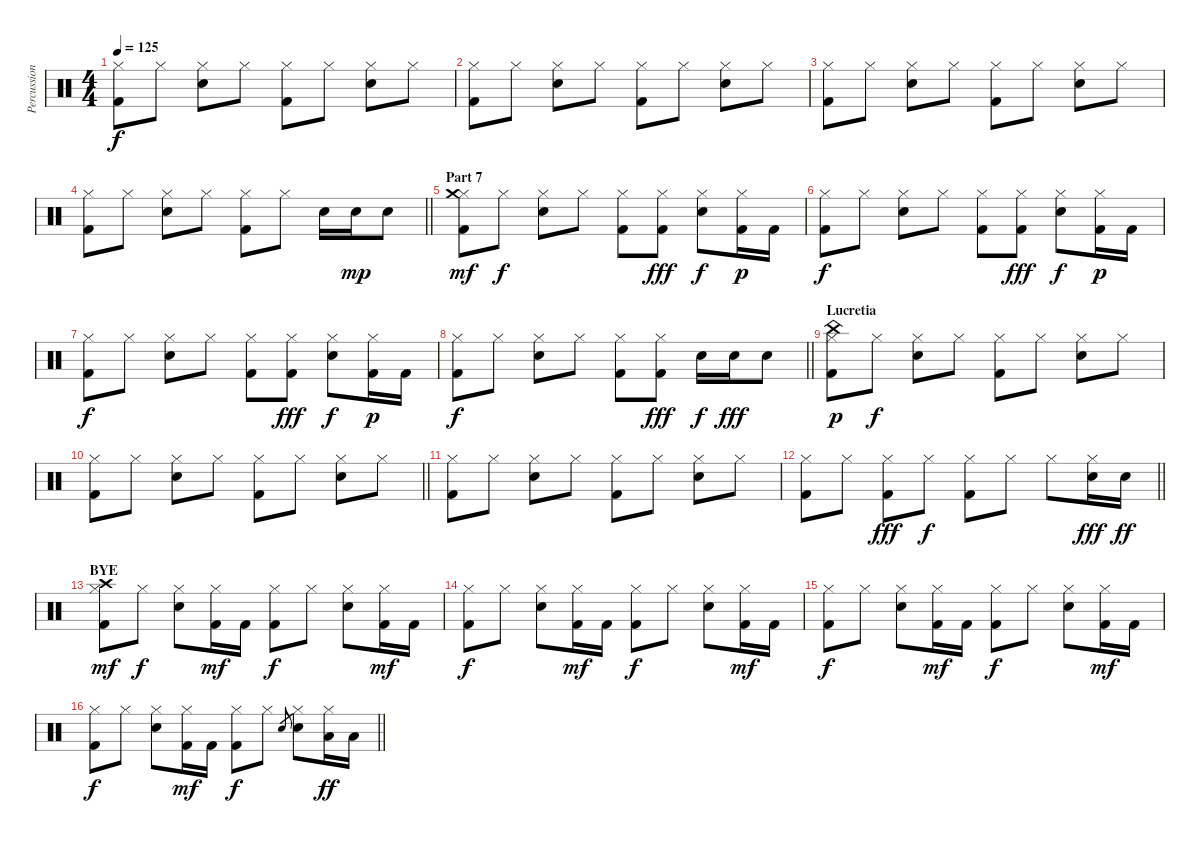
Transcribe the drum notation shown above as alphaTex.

\track ("Percussion" "Percussion") {instrument percussion}
\staff {score}
\articulation defaults
\ts (4 4)
\tempo 125
\clef neutral
\ks c
("Hi-Hat (closed)" "Kick (hit) 2").8{dy f} "Hi-Hat (closed)".8 ("Hi-Hat (closed)" "Electric Snare (hit)").8 "Hi-Hat (closed)".8 ("Hi-Hat (closed)" "Kick (hit) 2").8 "Hi-Hat (closed)".8 ("Hi-Hat (closed)" "Electric Snare (hit)").8 "Hi-Hat (closed)".8 |
("Hi-Hat (closed)" "Kick (hit) 2").8 "Hi-Hat (closed)".8 ("Hi-Hat (closed)" "Electric Snare (hit)").8 "Hi-Hat (closed)".8 ("Hi-Hat (closed)" "Kick (hit) 2").8 "Hi-Hat (closed)".8 ("Hi-Hat (closed)" "Electric Snare (hit)").8 "Hi-Hat (closed)".8 |
("Hi-Hat (closed)" "Kick (hit) 2").8 "Hi-Hat (closed)".8 ("Hi-Hat (closed)" "Electric Snare (hit)").8 "Hi-Hat (closed)".8 ("Hi-Hat (closed)" "Kick (hit) 2").8 "Hi-Hat (closed)".8 ("Hi-Hat (closed)" "Electric Snare (hit)").8 "Hi-Hat (closed)".8 |
\barLineRight lightlight
("Hi-Hat (closed)" "Kick (hit) 2").8 "Hi-Hat (closed)".8 ("Hi-Hat (closed)" "Electric Snare (hit)").8 "Hi-Hat (closed)".8 ("Hi-Hat (closed)" "Kick (hit) 2").8 "Hi-Hat (closed)".8 "Electric Snare (hit)".16 "Electric Snare (hit)".16{dy mp} "Electric Snare (hit)".8 |
\section ("" "Part 7")
("Hi-Hat (closed)" "Kick (hit) 2" "Crash medium (hit)").8{dy mf} "Hi-Hat (closed)".8{dy f} ("Hi-Hat (closed)" "Electric Snare (hit)").8 "Hi-Hat (closed)".8 ("Hi-Hat (closed)" "Kick (hit) 2").8 ("Hi-Hat (closed)" "Kick (hit) 2").8{dy fff} ("Hi-Hat (closed)" "Electric Snare (hit)").8{dy f} ("Hi-Hat (closed)" "Kick (hit) 2").16{dy p} "Kick (hit) 2".16 |
("Hi-Hat (closed)" "Kick (hit) 2").8{dy f} "Hi-Hat (closed)".8 ("Hi-Hat (closed)" "Electric Snare (hit)").8 "Hi-Hat (closed)".8 ("Hi-Hat (closed)" "Kick (hit) 2").8 ("Hi-Hat (closed)" "Kick (hit) 2").8{dy fff} ("Hi-Hat (closed)" "Electric Snare (hit)").8{dy f} ("Hi-Hat (closed)" "Kick (hit) 2").16{dy p} "Kick (hit) 2".16 |
("Hi-Hat (closed)" "Kick (hit) 2").8{dy f} "Hi-Hat (closed)".8 ("Hi-Hat (closed)" "Electric Snare (hit)").8 "Hi-Hat (closed)".8 ("Hi-Hat (closed)" "Kick (hit) 2").8 ("Hi-Hat (closed)" "Kick (hit) 2").8{dy fff} ("Hi-Hat (closed)" "Electric Snare (hit)").8{dy f} ("Hi-Hat (closed)" "Kick (hit) 2").16{dy p} "Kick (hit) 2".16 |
\barLineRight lightlight
("Hi-Hat (closed)" "Kick (hit) 2").8{dy f} "Hi-Hat (closed)".8 ("Hi-Hat (closed)" "Electric Snare (hit)").8 "Hi-Hat (closed)".8 ("Hi-Hat (closed)" "Kick (hit) 2").8 ("Hi-Hat (closed)" "Kick (hit) 2").8{dy fff} "Electric Snare (hit)".16{dy f} "Electric Snare (hit)".16{dy fff} "Electric Snare (hit)".8 |
\section ("" "Lucretia")
("Hi-Hat (closed)" "Kick (hit) 2" "China (hit)").8{dy p} "Hi-Hat (closed)".8{dy f} ("Hi-Hat (closed)" "Electric Snare (hit)").8 "Hi-Hat (closed)".8 ("Hi-Hat (closed)" "Kick (hit) 2").8 "Hi-Hat (closed)".8 ("Hi-Hat (closed)" "Electric Snare (hit)").8 "Hi-Hat (closed)".8 |
\barLineRight lightlight
("Hi-Hat (closed)" "Kick (hit) 2").8 "Hi-Hat (closed)".8 ("Hi-Hat (closed)" "Electric Snare (hit)").8 "Hi-Hat (closed)".8 ("Hi-Hat (closed)" "Kick (hit) 2").8 "Hi-Hat (closed)".8 ("Hi-Hat (closed)" "Electric Snare (hit)").8 "Hi-Hat (closed)".8 |
("Hi-Hat (closed)" "Kick (hit) 2").8 "Hi-Hat (closed)".8 ("Hi-Hat (closed)" "Electric Snare (hit)").8 "Hi-Hat (closed)".8 ("Hi-Hat (closed)" "Kick (hit) 2").8 "Hi-Hat (closed)".8 ("Hi-Hat (closed)" "Electric Snare (hit)").8 "Hi-Hat (closed)".8 |
\barLineRight lightlight
("Hi-Hat (closed)" "Kick (hit) 2").8 "Hi-Hat (closed)".8 ("Hi-Hat (closed)" "Kick (hit) 2").8{dy fff} "Hi-Hat (closed)".8{dy f} ("Hi-Hat (closed)" "Kick (hit) 2").8 "Hi-Hat (closed)".8 "Hi-Hat (closed)".8 ("Hi-Hat (closed)" "Electric Snare (hit)").16{dy fff} "Electric Snare (hit)".16{dy ff} |
\section ("" "BYE")
("Hi-Hat (closed)" "Kick (hit) 2" "Crash high (hit)").8{dy mf} "Hi-Hat (closed)".8{dy f} ("Hi-Hat (closed)" "Electric Snare (hit)").8 ("Hi-Hat (closed)" "Kick (hit) 2").16{dy mf} "Kick (hit) 2".16 ("Hi-Hat (closed)" "Kick (hit) 2").8{dy f} "Hi-Hat (closed)".8 ("Hi-Hat (closed)" "Electric Snare (hit)").8 ("Hi-Hat (closed)" "Kick (hit) 2").16{dy mf} "Kick (hit) 2".16 |
("Hi-Hat (closed)" "Kick (hit) 2").8{dy f} "Hi-Hat (closed)".8 ("Hi-Hat (closed)" "Electric Snare (hit)").8 ("Hi-Hat (closed)" "Kick (hit) 2").16{dy mf} "Kick (hit) 2".16 ("Hi-Hat (closed)" "Kick (hit) 2").8{dy f} "Hi-Hat (closed)".8 ("Hi-Hat (closed)" "Electric Snare (hit)").8 ("Hi-Hat (closed)" "Kick (hit) 2").16{dy mf} "Kick (hit) 2".16 |
("Hi-Hat (closed)" "Kick (hit) 2").8{dy f} "Hi-Hat (closed)".8 ("Hi-Hat (closed)" "Electric Snare (hit)").8 ("Hi-Hat (closed)" "Kick (hit) 2").16{dy mf} "Kick (hit) 2".16 ("Hi-Hat (closed)" "Kick (hit) 2").8{dy f} "Hi-Hat (closed)".8 ("Hi-Hat (closed)" "Electric Snare (hit)").8 ("Hi-Hat (closed)" "Kick (hit) 2").16{dy mf} "Kick (hit) 2".16 |
\barLineRight lightlight
("Hi-Hat (closed)" "Kick (hit) 2").8{dy f} "Hi-Hat (closed)".8 ("Hi-Hat (closed)" "Electric Snare (hit)").8 ("Hi-Hat (closed)" "Kick (hit) 2").16{dy mf} "Kick (hit) 2".16 ("Hi-Hat (closed)" "Kick (hit) 2").8{dy f} "Hi-Hat (closed)".8 "Electric Snare (hit)".8{gr} ("Hi-Hat (closed)" "Electric Snare (hit)").8 ("Hi-Hat (closed)" "Low Tom (hit)").16{dy ff} "Low Tom (hit)".16
